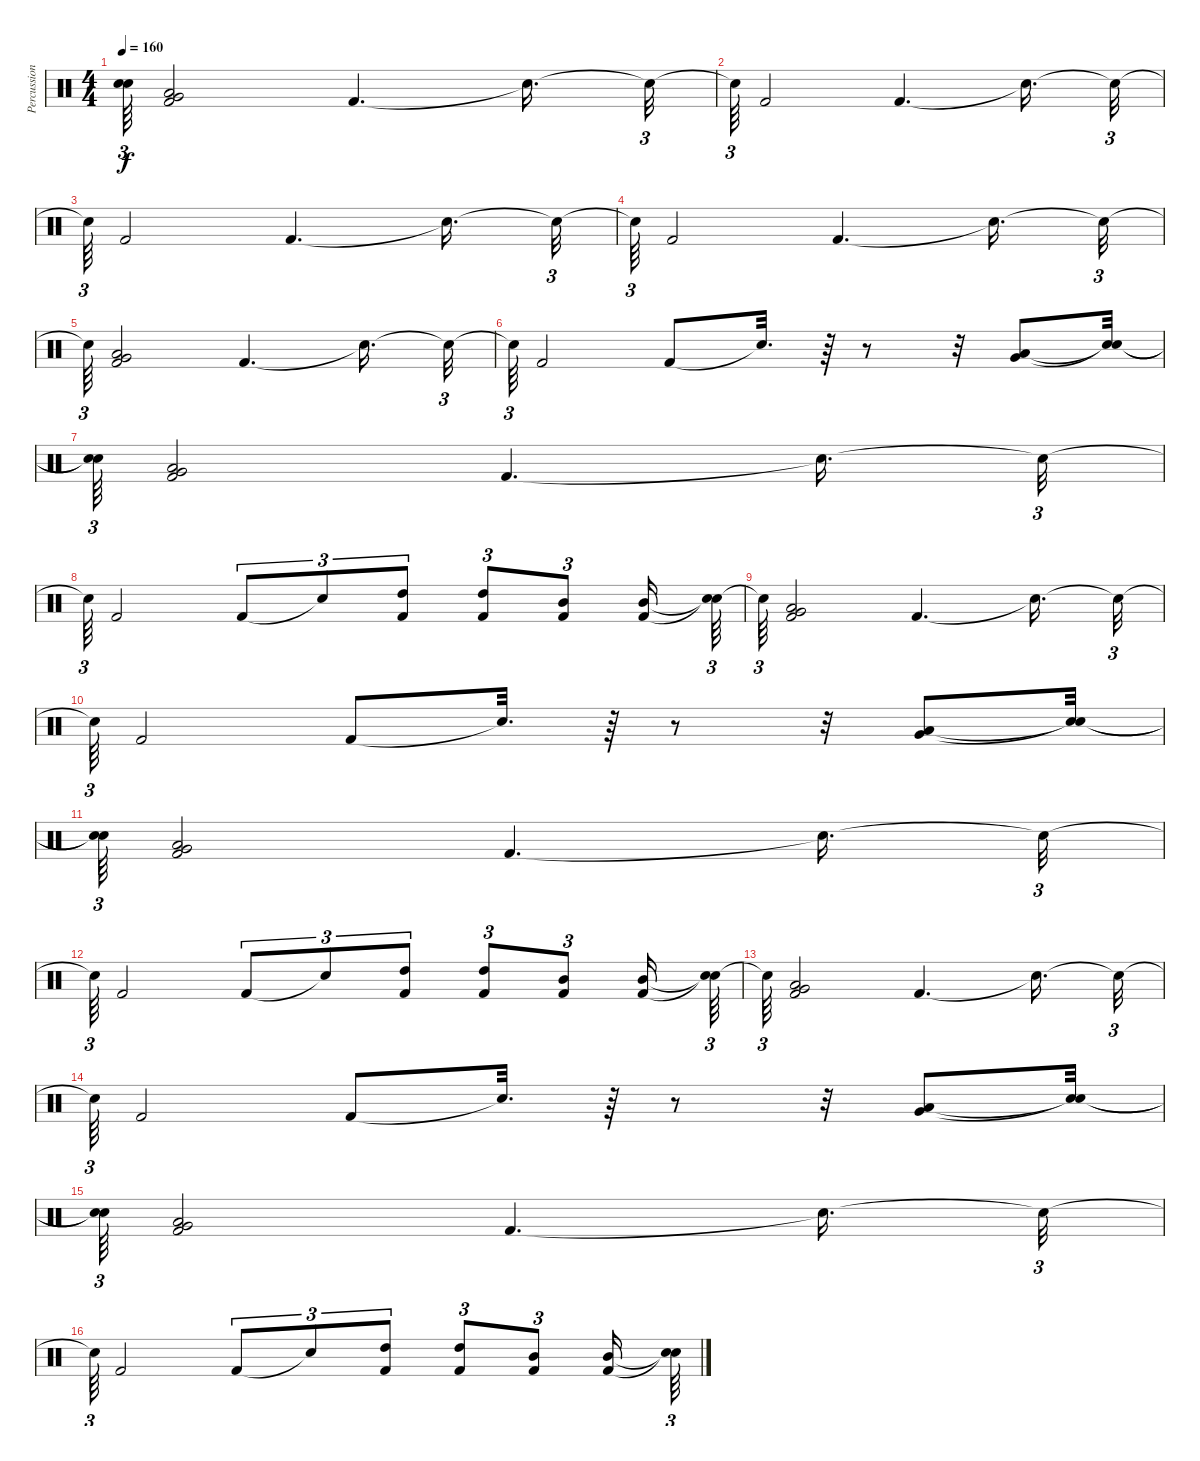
\track ("Percussion" "Percussion") {instrument percussion}
\staff {score}
\articulation defaults
\ts (4 4)
\tempo 160
\clef neutral
\ks c
("Snare (hit)"{t} "Snare (hit)"{t}).64{tu (3 2) dy f} ("Very Low Tom (hit)" "Low Floor Tom (hit)" "Kick (hit) 2").2 "Kick (hit) 2".4{d} "Snare (hit)"{t}.16{d} "Snare (hit)"{t}.32{tu (3 2)} |
"Snare (hit)"{t}.64{tu (3 2)} "Kick (hit) 2".2 "Kick (hit) 2".4{d} "Snare (hit)"{t}.16{d} "Snare (hit)"{t}.32{tu (3 2)} |
"Snare (hit)"{t}.64{tu (3 2)} "Kick (hit) 2".2 "Kick (hit) 2".4{d} "Snare (hit)"{t}.16{d} "Snare (hit)"{t}.32{tu (3 2)} |
"Snare (hit)"{t}.64{tu (3 2)} "Kick (hit) 2".2 "Kick (hit) 2".4{d} "Snare (hit)"{t}.16{d} "Snare (hit)"{t}.32{tu (3 2)} |
"Snare (hit)"{t}.64{tu (3 2)} ("Very Low Tom (hit)" "Low Floor Tom (hit)" "Kick (hit) 2").2 "Kick (hit) 2".4{d} "Snare (hit)"{t}.16{d} "Snare (hit)"{t}.32{tu (3 2)} |
"Snare (hit)"{t}.64{tu (3 2)} "Kick (hit) 2".2 "Kick (hit) 2".8 "Snare (hit)"{t}.32{d} r.64 r.8 r.32 ("Low Tom (hit)" "Very Low Tom (hit)").8 ("Snare (hit)"{t} "Snare (hit)"{t}).32 |
("Snare (hit)"{t} "Snare (hit)"{t}).64{tu (3 2)} ("Very Low Tom (hit)" "Low Floor Tom (hit)" "Kick (hit) 2").2 "Kick (hit) 2".4{d} "Snare (hit)"{t}.16{d} "Snare (hit)"{t}.32{tu (3 2)} |
"Snare (hit)"{t}.64{tu (3 2)} "Kick (hit) 2".2 "Kick (hit) 2".8{tu (3 2)} "Snare (hit)"{t}.8{tu (3 2)} ("High Tom (hit)" "Kick (hit) 2").8{tu (3 2)} ("High Tom (hit)" "Kick (hit) 2").8{tu (3 2)} ("Mid Tom (hit)" "Kick (hit) 2").8{tu (3 2)} ("Mid Tom (hit)" "Kick (hit) 2").16 ("Snare (hit)"{t} "Snare (hit)"{t}).64{tu (3 2)} |
"Snare (hit)"{t}.64{tu (3 2)} ("Very Low Tom (hit)" "Low Floor Tom (hit)" "Kick (hit) 2").2 "Kick (hit) 2".4{d} "Snare (hit)"{t}.16{d} "Snare (hit)"{t}.32{tu (3 2)} |
"Snare (hit)"{t}.64{tu (3 2)} "Kick (hit) 2".2 "Kick (hit) 2".8 "Snare (hit)"{t}.32{d} r.64 r.8 r.32 ("Low Tom (hit)" "Very Low Tom (hit)").8 ("Snare (hit)"{t} "Snare (hit)"{t}).32 |
("Snare (hit)"{t} "Snare (hit)"{t}).64{tu (3 2)} ("Very Low Tom (hit)" "Low Floor Tom (hit)" "Kick (hit) 2").2 "Kick (hit) 2".4{d} "Snare (hit)"{t}.16{d} "Snare (hit)"{t}.32{tu (3 2)} |
"Snare (hit)"{t}.64{tu (3 2)} "Kick (hit) 2".2 "Kick (hit) 2".8{tu (3 2)} "Snare (hit)"{t}.8{tu (3 2)} ("High Tom (hit)" "Kick (hit) 2").8{tu (3 2)} ("High Tom (hit)" "Kick (hit) 2").8{tu (3 2)} ("Mid Tom (hit)" "Kick (hit) 2").8{tu (3 2)} ("Mid Tom (hit)" "Kick (hit) 2").16 ("Snare (hit)"{t} "Snare (hit)"{t}).64{tu (3 2)} |
"Snare (hit)"{t}.64{tu (3 2)} ("Very Low Tom (hit)" "Low Floor Tom (hit)" "Kick (hit) 2").2 "Kick (hit) 2".4{d} "Snare (hit)"{t}.16{d} "Snare (hit)"{t}.32{tu (3 2)} |
"Snare (hit)"{t}.64{tu (3 2)} "Kick (hit) 2".2 "Kick (hit) 2".8 "Snare (hit)"{t}.32{d} r.64 r.8 r.32 ("Low Tom (hit)" "Very Low Tom (hit)").8 ("Snare (hit)"{t} "Snare (hit)"{t}).32 |
("Snare (hit)"{t} "Snare (hit)"{t}).64{tu (3 2)} ("Very Low Tom (hit)" "Low Floor Tom (hit)" "Kick (hit) 2").2 "Kick (hit) 2".4{d} "Snare (hit)"{t}.16{d} "Snare (hit)"{t}.32{tu (3 2)} |
"Snare (hit)"{t}.64{tu (3 2)} "Kick (hit) 2".2 "Kick (hit) 2".8{tu (3 2)} "Snare (hit)"{t}.8{tu (3 2)} ("High Tom (hit)" "Kick (hit) 2").8{tu (3 2)} ("High Tom (hit)" "Kick (hit) 2").8{tu (3 2)} ("Mid Tom (hit)" "Kick (hit) 2").8{tu (3 2)} ("Mid Tom (hit)" "Kick (hit) 2").16 ("Snare (hit)"{t} "Snare (hit)"{t}).64{tu (3 2)}
